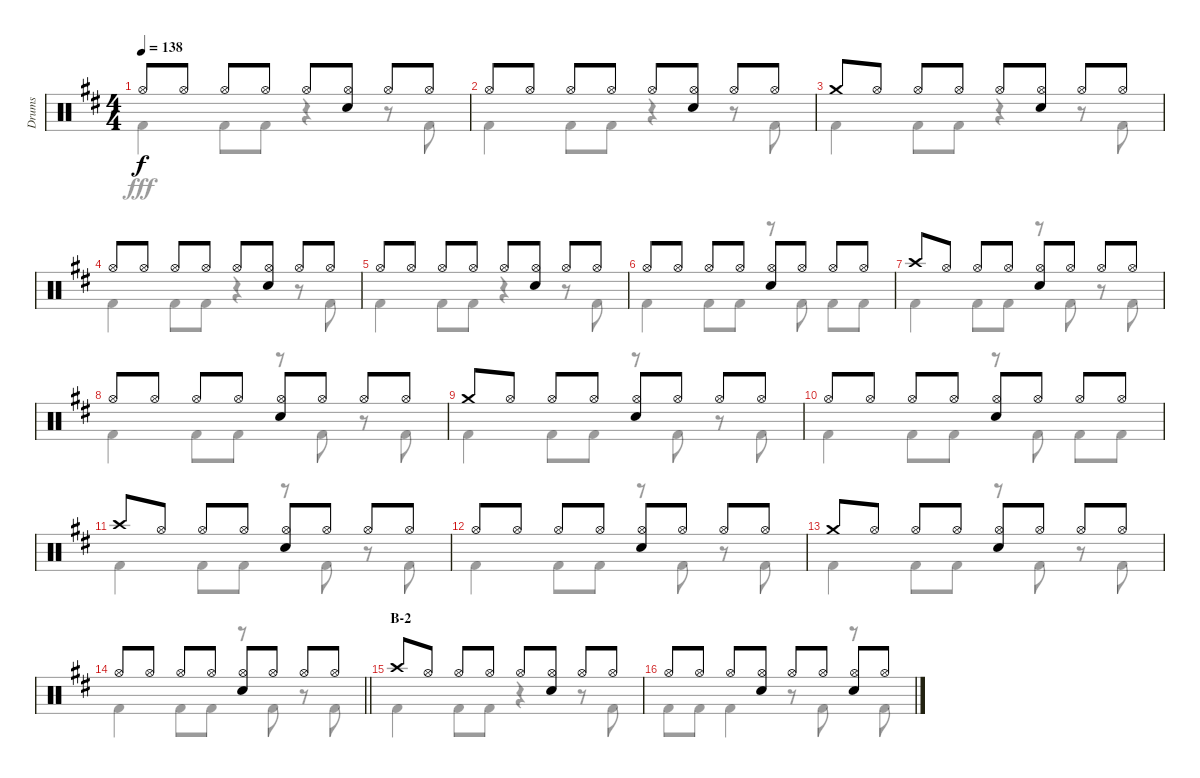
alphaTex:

\track ("Drums" "Drums") {instrument percussion}
\staff {score}
\articulation defaults
\voice
\ts (4 4)
\tempo 138
\clef neutral
\ks d "Hi-Hat (open)".8{dy f} "Hi-Hat (open)".8 "Hi-Hat (open)".8 "Hi-Hat (open)".8 "Hi-Hat (open)".8
("Hi-Hat (open)" "Snare (hit) 2").8 "Hi-Hat (open)".8 "Hi-Hat (open)".8 |
"Hi-Hat (open)".8 "Hi-Hat (open)".8 "Hi-Hat (open)".8 "Hi-Hat (open)".8 "Hi-Hat (open)".8 ("Hi-Hat (open)" "Snare (hit) 2").8 "Hi-Hat (open)".8 "Hi-Hat (open)".8 |
"Crash medium (hit)".8 "Hi-Hat (open)".8 "Hi-Hat (open)".8 "Hi-Hat (open)".8 "Hi-Hat (open)".8 ("Hi-Hat (open)" "Snare (hit) 2").8 "Hi-Hat (open)".8 "Hi-Hat (open)".8 |
"Hi-Hat (open)".8 "Hi-Hat (open)".8 "Hi-Hat (open)".8 "Hi-Hat (open)".8 "Hi-Hat (open)".8 ("Hi-Hat (open)" "Snare (hit) 2").8 "Hi-Hat (open)".8 "Hi-Hat (open)".8 |
"Hi-Hat (open)".8 "Hi-Hat (open)".8 "Hi-Hat (open)".8 "Hi-Hat (open)".8 "Hi-Hat (open)".8 ("Hi-Hat (open)" "Snare (hit) 2").8 "Hi-Hat (open)".8 "Hi-Hat (open)".8 |
"Hi-Hat (open)".8 "Hi-Hat (open)".8 "Hi-Hat (open)".8 "Hi-Hat (open)".8 ("Hi-Hat (open)" "Snare (hit) 2").8 "Hi-Hat (open)".8 "Hi-Hat (open)".8 "Hi-Hat (open)".8 |
"Crash high (hit)".8 "Hi-Hat (open)".8 "Hi-Hat (open)".8 "Hi-Hat (open)".8 ("Hi-Hat (open)" "Snare (hit) 2").8 "Hi-Hat (open)".8 "Hi-Hat (open)".8 "Hi-Hat (open)".8 |
"Hi-Hat (open)".8 "Hi-Hat (open)".8 "Hi-Hat (open)".8 "Hi-Hat (open)".8 ("Hi-Hat (open)" "Snare (hit) 2").8 "Hi-Hat (open)".8 "Hi-Hat (open)".8 "Hi-Hat (open)".8 |
"Crash medium (hit)".8 "Hi-Hat (open)".8 "Hi-Hat (open)".8 "Hi-Hat (open)".8 ("Hi-Hat (open)" "Snare (hit) 2").8 "Hi-Hat (open)".8 "Hi-Hat (open)".8 "Hi-Hat (open)".8 |
"Hi-Hat (open)".8 "Hi-Hat (open)".8 "Hi-Hat (open)".8 "Hi-Hat (open)".8 ("Hi-Hat (open)" "Snare (hit) 2").8 "Hi-Hat (open)".8 "Hi-Hat (open)".8 "Hi-Hat (open)".8 |
"Crash high (hit)".8 "Hi-Hat (open)".8 "Hi-Hat (open)".8 "Hi-Hat (open)".8 ("Hi-Hat (open)" "Snare (hit) 2").8 "Hi-Hat (open)".8 "Hi-Hat (open)".8 "Hi-Hat (open)".8 |
"Hi-Hat (open)".8 "Hi-Hat (open)".8 "Hi-Hat (open)".8 "Hi-Hat (open)".8 ("Hi-Hat (open)" "Snare (hit) 2").8 "Hi-Hat (open)".8 "Hi-Hat (open)".8 "Hi-Hat (open)".8 |
"Crash medium (hit)".8 "Hi-Hat (open)".8 "Hi-Hat (open)".8 "Hi-Hat (open)".8 ("Hi-Hat (open)" "Snare (hit) 2").8 "Hi-Hat (open)".8 "Hi-Hat (open)".8 "Hi-Hat (open)".8 |
\barLineRight lightlight "Hi-Hat (open)".8 "Hi-Hat (open)".8 "Hi-Hat (open)".8 "Hi-Hat (open)".8
("Hi-Hat (open)" "Snare (hit) 2").8 "Hi-Hat (open)".8 "Hi-Hat (open)".8 "Hi-Hat (open)".8 |
\section ("" "B-2")
"Crash high (hit)".8 "Hi-Hat (open)".8 "Hi-Hat (open)".8 "Hi-Hat (open)".8 "Hi-Hat (open)".8 ("Hi-Hat (open)" "Snare (hit) 2").8 "Hi-Hat (open)".8 "Hi-Hat (open)".8 |
"Hi-Hat (open)".8 "Hi-Hat (open)".8 "Hi-Hat (open)".8 ("Hi-Hat (open)" "Snare (hit) 2").8 "Hi-Hat (open)".8 "Hi-Hat (open)".8 ("Hi-Hat (open)" "Snare (hit) 2").8 "Hi-Hat (open)".8
\voice
\clef neutral
\ottava regular
\simile none
\ks d "Kick (hit) 2".4{dy fff} "Kick (hit) 2".8 "Kick (hit) 2".8
r.4 r.8 "Kick (hit) 2".8 |
"Kick (hit) 2".4 "Kick (hit) 2".8 "Kick (hit) 2".8 r.4 r.8 "Kick (hit) 2".8 |
"Kick (hit) 2".4 "Kick (hit) 2".8 "Kick (hit) 2".8 r.4 r.8 "Kick (hit) 2".8 |
"Kick (hit) 2".4 "Kick (hit) 2".8 "Kick (hit) 2".8 r.4 r.8 "Kick (hit) 2".8 |
"Kick (hit) 2".4 "Kick (hit) 2".8 "Kick (hit) 2".8 r.4 r.8 "Kick (hit) 2".8 |
"Kick (hit) 2".4 "Kick (hit) 2".8 "Kick (hit) 2".8 r.8 "Kick (hit) 2".8 "Kick (hit) 2".8 "Kick (hit) 2".8 |
"Kick (hit) 2".4 "Kick (hit) 2".8 "Kick (hit) 2".8 r.8 "Kick (hit) 2".8 r.8 "Kick (hit) 2".8 |
"Kick (hit) 2".4 "Kick (hit) 2".8 "Kick (hit) 2".8 r.8 "Kick (hit) 2".8 r.8 "Kick (hit) 2".8 |
"Kick (hit) 2".4 "Kick (hit) 2".8 "Kick (hit) 2".8 r.8 "Kick (hit) 2".8 r.8 "Kick (hit) 2".8 |
"Kick (hit) 2".4 "Kick (hit) 2".8 "Kick (hit) 2".8 r.8 "Kick (hit) 2".8 "Kick (hit) 2".8 "Kick (hit) 2".8 |
"Kick (hit) 2".4 "Kick (hit) 2".8 "Kick (hit) 2".8 r.8 "Kick (hit) 2".8 r.8 "Kick (hit) 2".8 |
"Kick (hit) 2".4 "Kick (hit) 2".8 "Kick (hit) 2".8 r.8 "Kick (hit) 2".8 r.8 "Kick (hit) 2".8 |
"Kick (hit) 2".4 "Kick (hit) 2".8 "Kick (hit) 2".8 r.8 "Kick (hit) 2".8 r.8 "Kick (hit) 2".8 |
\barLineRight lightlight "Kick (hit) 2".4 "Kick (hit) 2".8 "Kick (hit) 2".8
r.8 "Kick (hit) 2".8 r.8 "Kick (hit) 2".8 |
"Kick (hit) 2".4 "Kick (hit) 2".8 "Kick (hit) 2".8 r.4 r.8 "Kick (hit) 2".8 |
"Kick (hit) 2".8 "Kick (hit) 2".8 "Kick (hit) 2".4 r.8 "Kick (hit) 2".8 r.8 "Kick (hit) 2".8
